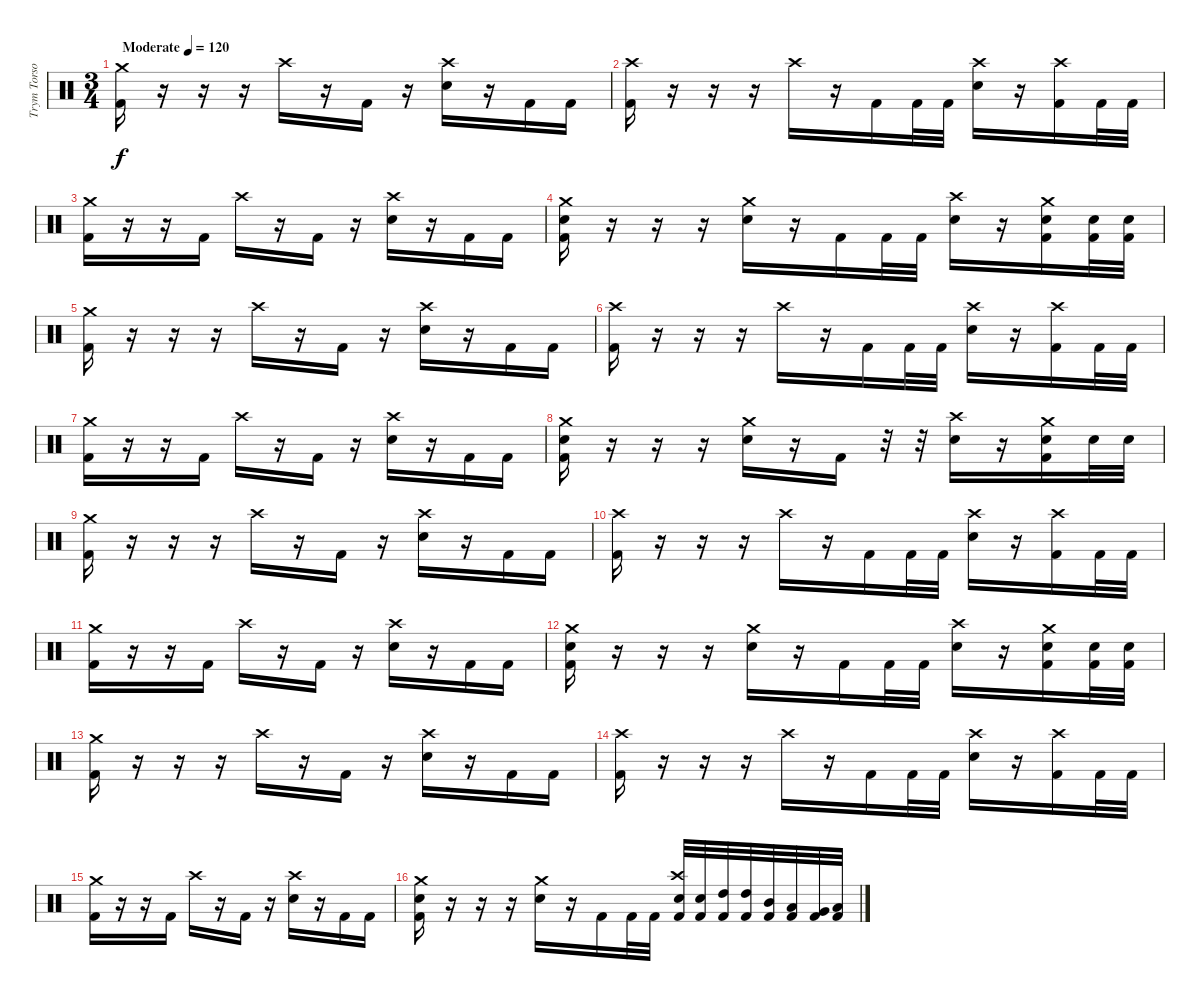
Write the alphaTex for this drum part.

\track ("Trym Torson" "Trym Torso") {instrument percussion}
\staff {score}
\articulation defaults
\ts (3 4)
\tempo (120 "Moderate")
\clef neutral
\ks c
("Crash medium (hit)" "Kick (hit) 2").16{dy f} r.16 r.16 r.16 "Crash high (hit)".16 r.16 "Kick (hit) 2".16 r.16 ("Crash high (hit)" "Snare (hit) 2").16 r.16 "Kick (hit) 2".16 "Kick (hit) 2".16 |
("Crash high (hit)" "Kick (hit) 2").16 r.16 r.16 r.16 "Crash high (hit)".16 r.16 "Kick (hit) 2".16 "Kick (hit) 2".32 "Kick (hit) 2".32 ("Crash high (hit)" "Snare (hit) 2").16 r.16 ("Crash high (hit)" "Kick (hit) 2").16 "Kick (hit) 2".32 "Kick (hit) 2".32 |
("Crash medium (hit)" "Kick (hit) 2").16 r.16 r.16 "Kick (hit) 2".16 "Crash high (hit)".16 r.16 "Kick (hit) 2".16 r.16 ("Crash high (hit)" "Snare (hit) 2").16 r.16 "Kick (hit) 2".16 "Kick (hit) 2".16 |
("Crash medium (hit)" "Snare (hit) 2" "Kick (hit) 2").16 r.16 r.16 r.16 ("Crash medium (hit)" "Snare (hit) 2").16 r.16 "Kick (hit) 2".16 "Kick (hit) 2".32 "Kick (hit) 2".32 ("Crash high (hit)" "Snare (hit) 2").16 r.16 ("Crash medium (hit)" "Snare (hit) 2" "Kick (hit) 2").16 ("Snare (hit) 2" "Kick (hit) 2").32 ("Snare (hit) 2" "Kick (hit) 2").32 |
("Crash medium (hit)" "Kick (hit) 2").16 r.16 r.16 r.16 "Crash high (hit)".16 r.16 "Kick (hit) 2".16 r.16 ("Crash high (hit)" "Snare (hit) 2").16 r.16 "Kick (hit) 2".16 "Kick (hit) 2".16 |
("Crash high (hit)" "Kick (hit) 2").16 r.16 r.16 r.16 "Crash high (hit)".16 r.16 "Kick (hit) 2".16 "Kick (hit) 2".32 "Kick (hit) 2".32 ("Crash high (hit)" "Snare (hit) 2").16 r.16 ("Crash high (hit)" "Kick (hit) 2").16 "Kick (hit) 2".32 "Kick (hit) 2".32 |
("Crash medium (hit)" "Kick (hit) 2").16 r.16 r.16 "Kick (hit) 2".16 "Crash high (hit)".16 r.16 "Kick (hit) 2".16 r.16 ("Crash high (hit)" "Snare (hit) 2").16 r.16 "Kick (hit) 2".16 "Kick (hit) 2".16 |
("Crash medium (hit)" "Snare (hit) 2" "Kick (hit) 2").16 r.16 r.16 r.16 ("Crash medium (hit)" "Snare (hit) 2").16 r.16 "Kick (hit) 2".16 r.32 r.32 ("Crash high (hit)" "Snare (hit) 2").16 r.16 ("Crash medium (hit)" "Snare (hit) 2" "Kick (hit) 2").16 "Snare (hit) 2".32 "Snare (hit) 2".32 |
("Crash medium (hit)" "Kick (hit) 2").16 r.16 r.16 r.16 "Crash high (hit)".16 r.16 "Kick (hit) 2".16 r.16 ("Crash high (hit)" "Snare (hit) 2").16 r.16 "Kick (hit) 2".16 "Kick (hit) 2".16 |
("Crash high (hit)" "Kick (hit) 2").16 r.16 r.16 r.16 "Crash high (hit)".16 r.16 "Kick (hit) 2".16 "Kick (hit) 2".32 "Kick (hit) 2".32 ("Crash high (hit)" "Snare (hit) 2").16 r.16 ("Crash high (hit)" "Kick (hit) 2").16 "Kick (hit) 2".32 "Kick (hit) 2".32 |
("Crash medium (hit)" "Kick (hit) 2").16 r.16 r.16 "Kick (hit) 2".16 "Crash high (hit)".16 r.16 "Kick (hit) 2".16 r.16 ("Crash high (hit)" "Snare (hit) 2").16 r.16 "Kick (hit) 2".16 "Kick (hit) 2".16 |
("Crash medium (hit)" "Snare (hit) 2" "Kick (hit) 2").16 r.16 r.16 r.16 ("Crash medium (hit)" "Snare (hit) 2").16 r.16 "Kick (hit) 2".16 "Kick (hit) 2".32 "Kick (hit) 2".32 ("Crash high (hit)" "Snare (hit) 2").16 r.16 ("Crash medium (hit)" "Snare (hit) 2" "Kick (hit) 2").16 ("Snare (hit) 2" "Kick (hit) 2").32 ("Snare (hit) 2" "Kick (hit) 2").32 |
("Crash medium (hit)" "Kick (hit) 2").16 r.16 r.16 r.16 "Crash high (hit)".16 r.16 "Kick (hit) 2".16 r.16 ("Crash high (hit)" "Snare (hit) 2").16 r.16 "Kick (hit) 2".16 "Kick (hit) 2".16 |
("Crash high (hit)" "Kick (hit) 2").16 r.16 r.16 r.16 "Crash high (hit)".16 r.16 "Kick (hit) 2".16 "Kick (hit) 2".32 "Kick (hit) 2".32 ("Crash high (hit)" "Snare (hit) 2").16 r.16 ("Crash high (hit)" "Kick (hit) 2").16 "Kick (hit) 2".32 "Kick (hit) 2".32 |
("Crash medium (hit)" "Kick (hit) 2").16 r.16 r.16 "Kick (hit) 2".16 "Crash high (hit)".16 r.16 "Kick (hit) 2".16 r.16 ("Crash high (hit)" "Snare (hit) 2").16 r.16 "Kick (hit) 2".16 "Kick (hit) 2".16 |
("Crash medium (hit)" "Snare (hit) 2" "Kick (hit) 2").16 r.16 r.16 r.16 ("Crash medium (hit)" "Snare (hit) 2").16 r.16 "Kick (hit) 2".16 "Kick (hit) 2".32 "Kick (hit) 2".32 ("Crash high (hit)" "Snare (hit) 2" "Kick (hit) 2").32 ("Snare (hit) 2" "Kick (hit) 2").32 ("High Tom (hit)" "Kick (hit) 2").32 ("High Tom (hit)" "Kick (hit) 2").32 ("Mid Tom (hit)" "Kick (hit) 2").32 ("Low Tom (hit)" "Kick (hit) 2").32 ("Very Low Tom (hit)" "Kick (hit) 2").32 ("Low Floor Tom (hit)" "Kick (hit) 2").32
